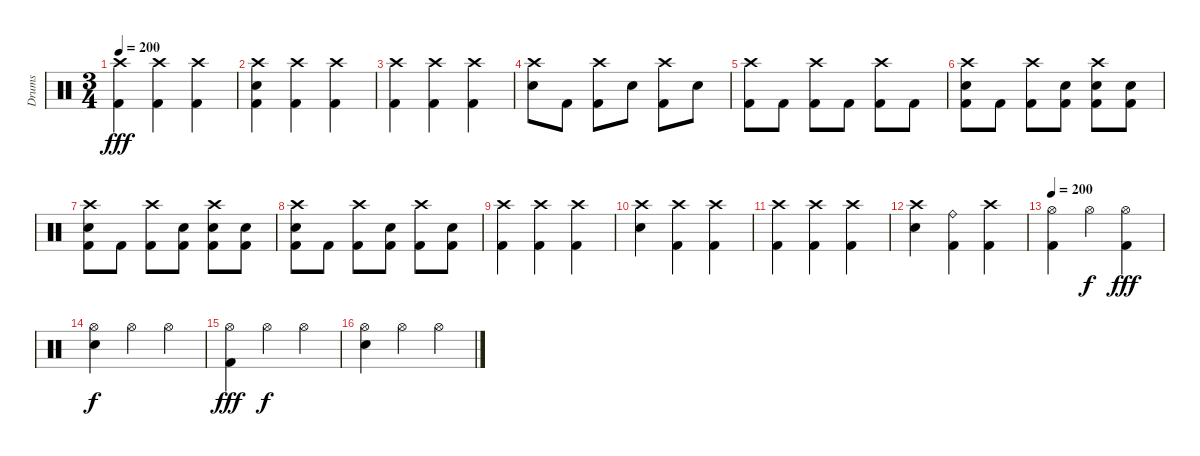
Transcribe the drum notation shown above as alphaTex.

\track ("Drums" "Drums") {instrument percussion}
\staff {score}
\articulation defaults
\ts (3 4)
\tempo 200
\clef neutral
\ks c
("Crash high (hit)" "Kick (hit) 2").4{dy fff} ("Crash high (hit)" "Kick (hit) 2").4 ("Crash high (hit)" "Kick (hit) 2").4 |
("Crash high (hit)" "Electric Snare (hit)" "Kick (hit) 2").4 ("Crash high (hit)" "Kick (hit) 2").4 ("Crash high (hit)" "Kick (hit) 2").4 |
("Crash high (hit)" "Kick (hit) 2").4 ("Crash high (hit)" "Kick (hit) 2").4 ("Crash high (hit)" "Kick (hit) 2").4 |
("Crash high (hit)" "Electric Snare (hit)").8 "Kick (hit) 2".8 ("Crash high (hit)" "Kick (hit) 2").8 "Electric Snare (hit)".8 ("Crash high (hit)" "Kick (hit) 2").8 "Electric Snare (hit)".8 |
("Crash high (hit)" "Kick (hit) 2").8 "Kick (hit) 2".8 ("Crash high (hit)" "Kick (hit) 2").8 "Kick (hit) 2".8 ("Crash high (hit)" "Kick (hit) 2").8 "Kick (hit) 2".8 |
("Crash high (hit)" "Electric Snare (hit)" "Kick (hit) 2").8 "Kick (hit) 2".8 ("Crash high (hit)" "Kick (hit) 2").8 ("Electric Snare (hit)" "Kick (hit) 2").8 ("Crash high (hit)" "Electric Snare (hit)" "Kick (hit) 2").8 ("Electric Snare (hit)" "Kick (hit) 2").8 |
("Crash high (hit)" "Electric Snare (hit)" "Kick (hit) 2").8 "Kick (hit) 2".8 ("Crash high (hit)" "Kick (hit) 2").8 ("Electric Snare (hit)" "Kick (hit) 2").8 ("Crash high (hit)" "Electric Snare (hit)" "Kick (hit) 2").8 ("Electric Snare (hit)" "Kick (hit) 2").8 |
("Crash high (hit)" "Electric Snare (hit)" "Kick (hit) 2").8 "Kick (hit) 2".8 ("Crash high (hit)" "Kick (hit) 2").8 ("Electric Snare (hit)" "Kick (hit) 2").8 ("Crash high (hit)" "Kick (hit) 2").8 ("Electric Snare (hit)" "Kick (hit) 2").8 |
("Crash high (hit)" "Kick (hit) 2").4 ("Crash high (hit)" "Kick (hit) 2").4 ("Crash high (hit)" "Kick (hit) 2").4 |
("Crash high (hit)" "Electric Snare (hit)").4 ("Crash high (hit)" "Kick (hit) 2").4 ("Crash high (hit)" "Kick (hit) 2").4 |
("Crash high (hit)" "Kick (hit) 2").4 ("Crash high (hit)" "Kick (hit) 2").4 ("Crash high (hit)" "Kick (hit) 2").4 |
("Crash high (hit)" "Electric Snare (hit)").4 ("Ride (bell)" "Kick (hit) 2").4 ("Crash high (hit)" "Kick (hit) 2").4 |
\tempo 200
("Hi-Hat (open)" "Kick (hit) 2").4 "Hi-Hat (open)".4{dy f} ("Hi-Hat (open)" "Kick (hit) 2").4{dy fff} |
("Hi-Hat (open)" "Electric Snare (hit)").4{dy f} "Hi-Hat (open)".4 "Hi-Hat (open)".4 |
("Hi-Hat (open)" "Kick (hit) 2").4{dy fff} "Hi-Hat (open)".4{dy f} "Hi-Hat (open)".4 |
("Hi-Hat (open)" "Electric Snare (hit)").4 "Hi-Hat (open)".4 "Hi-Hat (open)".4
